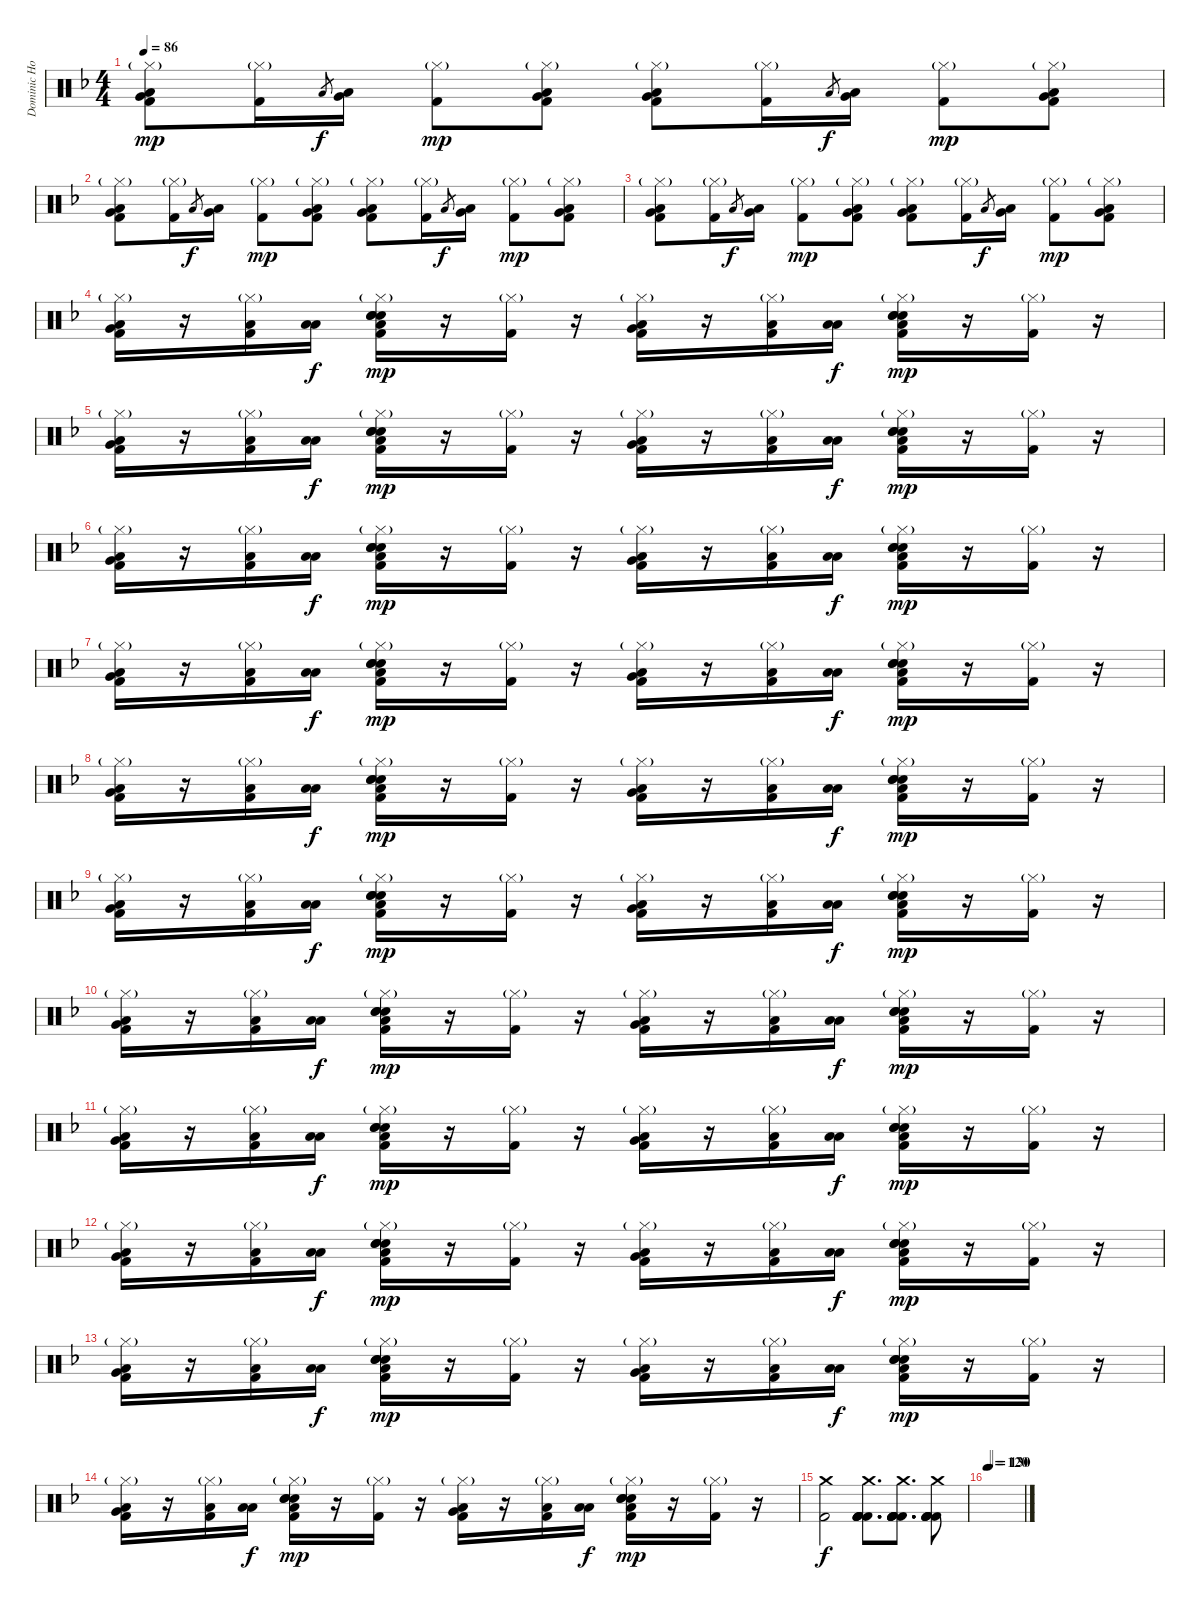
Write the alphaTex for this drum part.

\track ("Dominic Howard" "Dominic Ho") {instrument percussion}
\staff {score}
\articulation defaults
\ts (4 4)
\tempo 86
\clef neutral
\ks f
("Hi-Hat (closed)"{g} "Very Low Tom (hit)" "Low Floor Tom (hit)" "Kick (hit) 2").8{dy mp} ("Hi-Hat (closed)"{g} "Kick (hit) 2").16 "Low Floor Tom (hit)".8{gr dy f} ("Very Low Tom (hit)" "Low Floor Tom (hit)").16 ("Hi-Hat (closed)"{g} "Kick (hit) 2").8{dy mp} ("Hi-Hat (closed)"{g} "Very Low Tom (hit)" "Low Floor Tom (hit)" "Kick (hit) 2").8 ("Hi-Hat (closed)"{g} "Very Low Tom (hit)" "Low Floor Tom (hit)" "Kick (hit) 2").8 ("Hi-Hat (closed)"{g} "Kick (hit) 2").16 "Low Floor Tom (hit)".8{gr dy f} ("Very Low Tom (hit)" "Low Floor Tom (hit)").16 ("Hi-Hat (closed)"{g} "Kick (hit) 2").8{dy mp} ("Hi-Hat (closed)"{g} "Very Low Tom (hit)" "Low Floor Tom (hit)" "Kick (hit) 2").8 |
("Hi-Hat (closed)"{g} "Very Low Tom (hit)" "Low Floor Tom (hit)" "Kick (hit) 2").8 ("Hi-Hat (closed)"{g} "Kick (hit) 2").16 "Low Floor Tom (hit)".8{gr dy f} ("Very Low Tom (hit)" "Low Floor Tom (hit)").16 ("Hi-Hat (closed)"{g} "Kick (hit) 2").8{dy mp} ("Hi-Hat (closed)"{g} "Very Low Tom (hit)" "Low Floor Tom (hit)" "Kick (hit) 2").8 ("Hi-Hat (closed)"{g} "Very Low Tom (hit)" "Low Floor Tom (hit)" "Kick (hit) 2").8 ("Hi-Hat (closed)"{g} "Kick (hit) 2").16 "Low Floor Tom (hit)".8{gr dy f} ("Very Low Tom (hit)" "Low Floor Tom (hit)").16 ("Hi-Hat (closed)"{g} "Kick (hit) 2").8{dy mp} ("Hi-Hat (closed)"{g} "Very Low Tom (hit)" "Low Floor Tom (hit)" "Kick (hit) 2").8 |
("Hi-Hat (closed)"{g} "Very Low Tom (hit)" "Low Floor Tom (hit)" "Kick (hit) 2").8 ("Hi-Hat (closed)"{g} "Kick (hit) 2").16 "Low Floor Tom (hit)".8{gr dy f} ("Very Low Tom (hit)" "Low Floor Tom (hit)").16 ("Hi-Hat (closed)"{g} "Kick (hit) 2").8{dy mp} ("Hi-Hat (closed)"{g} "Very Low Tom (hit)" "Low Floor Tom (hit)" "Kick (hit) 2").8 ("Hi-Hat (closed)"{g} "Very Low Tom (hit)" "Low Floor Tom (hit)" "Kick (hit) 2").8 ("Hi-Hat (closed)"{g} "Kick (hit) 2").16 "Low Floor Tom (hit)".8{gr dy f} ("Very Low Tom (hit)" "Low Floor Tom (hit)").16 ("Hi-Hat (closed)"{g} "Kick (hit) 2").8{dy mp} ("Hi-Hat (closed)"{g} "Very Low Tom (hit)" "Low Floor Tom (hit)" "Kick (hit) 2").8 |
("Hi-Hat (closed)"{g} "Very Low Tom (hit)" "Low Floor Tom (hit)" "Kick (hit) 2").16 r.16 ("Hi-Hat (closed)"{g} "Low Floor Tom (hit)" "Kick (hit) 2").16 ("Low Floor Tom (hit)" "Low Tom (hit)").16{dy f} ("Electric Snare (hit)" "Electric Snare (hit)" "Electric Snare (hit)" "Low Floor Tom (hit)" "Hi-Hat (closed)"{g} "Kick (hit) 2").16{dy mp} r.16 ("Hi-Hat (closed)"{g} "Kick (hit) 2").16 r.16 ("Very Low Tom (hit)" "Low Floor Tom (hit)" "Hi-Hat (closed)"{g} "Kick (hit) 2").16 r.16 ("Low Floor Tom (hit)" "Hi-Hat (closed)"{g} "Kick (hit) 2").16 ("Low Floor Tom (hit)" "Low Tom (hit)").16{dy f} ("Electric Snare (hit)" "Electric Snare (hit)" "Electric Snare (hit)" "Low Floor Tom (hit)" "Hi-Hat (closed)"{g} "Kick (hit) 2").16{dy mp} r.16 ("Hi-Hat (closed)"{g} "Kick (hit) 2").16 r.16 |
("Hi-Hat (closed)"{g} "Very Low Tom (hit)" "Low Floor Tom (hit)" "Kick (hit) 2").16 r.16 ("Hi-Hat (closed)"{g} "Low Floor Tom (hit)" "Kick (hit) 2").16 ("Low Floor Tom (hit)" "Low Tom (hit)").16{dy f} ("Electric Snare (hit)" "Electric Snare (hit)" "Electric Snare (hit)" "Low Floor Tom (hit)" "Hi-Hat (closed)"{g} "Kick (hit) 2").16{dy mp} r.16 ("Hi-Hat (closed)"{g} "Kick (hit) 2").16 r.16 ("Very Low Tom (hit)" "Low Floor Tom (hit)" "Hi-Hat (closed)"{g} "Kick (hit) 2").16 r.16 ("Low Floor Tom (hit)" "Hi-Hat (closed)"{g} "Kick (hit) 2").16 ("Low Floor Tom (hit)" "Low Tom (hit)").16{dy f} ("Electric Snare (hit)" "Electric Snare (hit)" "Electric Snare (hit)" "Low Floor Tom (hit)" "Hi-Hat (closed)"{g} "Kick (hit) 2").16{dy mp} r.16 ("Hi-Hat (closed)"{g} "Kick (hit) 2").16 r.16 |
("Hi-Hat (closed)"{g} "Very Low Tom (hit)" "Low Floor Tom (hit)" "Kick (hit) 2").16 r.16 ("Hi-Hat (closed)"{g} "Low Floor Tom (hit)" "Kick (hit) 2").16 ("Low Floor Tom (hit)" "Low Tom (hit)").16{dy f} ("Electric Snare (hit)" "Electric Snare (hit)" "Electric Snare (hit)" "Low Floor Tom (hit)" "Hi-Hat (closed)"{g} "Kick (hit) 2").16{dy mp} r.16 ("Hi-Hat (closed)"{g} "Kick (hit) 2").16 r.16 ("Very Low Tom (hit)" "Low Floor Tom (hit)" "Hi-Hat (closed)"{g} "Kick (hit) 2").16 r.16 ("Low Floor Tom (hit)" "Hi-Hat (closed)"{g} "Kick (hit) 2").16 ("Low Floor Tom (hit)" "Low Tom (hit)").16{dy f} ("Electric Snare (hit)" "Electric Snare (hit)" "Electric Snare (hit)" "Low Floor Tom (hit)" "Hi-Hat (closed)"{g} "Kick (hit) 2").16{dy mp} r.16 ("Hi-Hat (closed)"{g} "Kick (hit) 2").16 r.16 |
("Hi-Hat (closed)"{g} "Very Low Tom (hit)" "Low Floor Tom (hit)" "Kick (hit) 2").16 r.16 ("Hi-Hat (closed)"{g} "Low Floor Tom (hit)" "Kick (hit) 2").16 ("Low Floor Tom (hit)" "Low Tom (hit)").16{dy f} ("Electric Snare (hit)" "Electric Snare (hit)" "Electric Snare (hit)" "Low Floor Tom (hit)" "Hi-Hat (closed)"{g} "Kick (hit) 2").16{dy mp} r.16 ("Hi-Hat (closed)"{g} "Kick (hit) 2").16 r.16 ("Very Low Tom (hit)" "Low Floor Tom (hit)" "Hi-Hat (closed)"{g} "Kick (hit) 2").16 r.16 ("Low Floor Tom (hit)" "Hi-Hat (closed)"{g} "Kick (hit) 2").16 ("Low Floor Tom (hit)" "Low Tom (hit)").16{dy f} ("Electric Snare (hit)" "Electric Snare (hit)" "Electric Snare (hit)" "Low Floor Tom (hit)" "Hi-Hat (closed)"{g} "Kick (hit) 2").16{dy mp} r.16 ("Hi-Hat (closed)"{g} "Kick (hit) 2").16 r.16 |
("Hi-Hat (closed)"{g} "Very Low Tom (hit)" "Low Floor Tom (hit)" "Kick (hit) 2").16 r.16 ("Hi-Hat (closed)"{g} "Low Floor Tom (hit)" "Kick (hit) 2").16 ("Low Floor Tom (hit)" "Low Tom (hit)").16{dy f} ("Electric Snare (hit)" "Electric Snare (hit)" "Electric Snare (hit)" "Low Floor Tom (hit)" "Hi-Hat (closed)"{g} "Kick (hit) 2").16{dy mp} r.16 ("Hi-Hat (closed)"{g} "Kick (hit) 2").16 r.16 ("Very Low Tom (hit)" "Low Floor Tom (hit)" "Hi-Hat (closed)"{g} "Kick (hit) 2").16 r.16 ("Low Floor Tom (hit)" "Hi-Hat (closed)"{g} "Kick (hit) 2").16 ("Low Floor Tom (hit)" "Low Tom (hit)").16{dy f} ("Electric Snare (hit)" "Electric Snare (hit)" "Electric Snare (hit)" "Low Floor Tom (hit)" "Hi-Hat (closed)"{g} "Kick (hit) 2").16{dy mp} r.16 ("Hi-Hat (closed)"{g} "Kick (hit) 2").16 r.16 |
("Hi-Hat (closed)"{g} "Very Low Tom (hit)" "Low Floor Tom (hit)" "Kick (hit) 2").16 r.16 ("Hi-Hat (closed)"{g} "Low Floor Tom (hit)" "Kick (hit) 2").16 ("Low Floor Tom (hit)" "Low Tom (hit)").16{dy f} ("Electric Snare (hit)" "Electric Snare (hit)" "Electric Snare (hit)" "Low Floor Tom (hit)" "Hi-Hat (closed)"{g} "Kick (hit) 2").16{dy mp} r.16 ("Hi-Hat (closed)"{g} "Kick (hit) 2").16 r.16 ("Very Low Tom (hit)" "Low Floor Tom (hit)" "Hi-Hat (closed)"{g} "Kick (hit) 2").16 r.16 ("Low Floor Tom (hit)" "Hi-Hat (closed)"{g} "Kick (hit) 2").16 ("Low Floor Tom (hit)" "Low Tom (hit)").16{dy f} ("Electric Snare (hit)" "Electric Snare (hit)" "Electric Snare (hit)" "Low Floor Tom (hit)" "Hi-Hat (closed)"{g} "Kick (hit) 2").16{dy mp} r.16 ("Hi-Hat (closed)"{g} "Kick (hit) 2").16 r.16 |
("Hi-Hat (closed)"{g} "Very Low Tom (hit)" "Low Floor Tom (hit)" "Kick (hit) 2").16 r.16 ("Hi-Hat (closed)"{g} "Low Floor Tom (hit)" "Kick (hit) 2").16 ("Low Floor Tom (hit)" "Low Tom (hit)").16{dy f} ("Electric Snare (hit)" "Electric Snare (hit)" "Electric Snare (hit)" "Low Floor Tom (hit)" "Hi-Hat (closed)"{g} "Kick (hit) 2").16{dy mp} r.16 ("Hi-Hat (closed)"{g} "Kick (hit) 2").16 r.16 ("Very Low Tom (hit)" "Low Floor Tom (hit)" "Hi-Hat (closed)"{g} "Kick (hit) 2").16 r.16 ("Low Floor Tom (hit)" "Hi-Hat (closed)"{g} "Kick (hit) 2").16 ("Low Floor Tom (hit)" "Low Tom (hit)").16{dy f} ("Electric Snare (hit)" "Electric Snare (hit)" "Electric Snare (hit)" "Low Floor Tom (hit)" "Hi-Hat (closed)"{g} "Kick (hit) 2").16{dy mp} r.16 ("Hi-Hat (closed)"{g} "Kick (hit) 2").16 r.16 |
("Hi-Hat (closed)"{g} "Very Low Tom (hit)" "Low Floor Tom (hit)" "Kick (hit) 2").16 r.16 ("Hi-Hat (closed)"{g} "Low Floor Tom (hit)" "Kick (hit) 2").16 ("Low Floor Tom (hit)" "Low Tom (hit)").16{dy f} ("Electric Snare (hit)" "Electric Snare (hit)" "Electric Snare (hit)" "Low Floor Tom (hit)" "Hi-Hat (closed)"{g} "Kick (hit) 2").16{dy mp} r.16 ("Hi-Hat (closed)"{g} "Kick (hit) 2").16 r.16 ("Very Low Tom (hit)" "Low Floor Tom (hit)" "Hi-Hat (closed)"{g} "Kick (hit) 2").16 r.16 ("Low Floor Tom (hit)" "Hi-Hat (closed)"{g} "Kick (hit) 2").16 ("Low Floor Tom (hit)" "Low Tom (hit)").16{dy f} ("Electric Snare (hit)" "Electric Snare (hit)" "Electric Snare (hit)" "Low Floor Tom (hit)" "Hi-Hat (closed)"{g} "Kick (hit) 2").16{dy mp} r.16 ("Hi-Hat (closed)"{g} "Kick (hit) 2").16 r.16 |
("Hi-Hat (closed)"{g} "Very Low Tom (hit)" "Low Floor Tom (hit)" "Kick (hit) 2").16 r.16 ("Hi-Hat (closed)"{g} "Low Floor Tom (hit)" "Kick (hit) 2").16 ("Low Floor Tom (hit)" "Low Tom (hit)").16{dy f} ("Electric Snare (hit)" "Electric Snare (hit)" "Electric Snare (hit)" "Low Floor Tom (hit)" "Hi-Hat (closed)"{g} "Kick (hit) 2").16{dy mp} r.16 ("Hi-Hat (closed)"{g} "Kick (hit) 2").16 r.16 ("Very Low Tom (hit)" "Low Floor Tom (hit)" "Hi-Hat (closed)"{g} "Kick (hit) 2").16 r.16 ("Low Floor Tom (hit)" "Hi-Hat (closed)"{g} "Kick (hit) 2").16 ("Low Floor Tom (hit)" "Low Tom (hit)").16{dy f} ("Electric Snare (hit)" "Electric Snare (hit)" "Electric Snare (hit)" "Low Floor Tom (hit)" "Hi-Hat (closed)"{g} "Kick (hit) 2").16{dy mp} r.16 ("Hi-Hat (closed)"{g} "Kick (hit) 2").16 r.16 |
("Hi-Hat (closed)"{g} "Very Low Tom (hit)" "Low Floor Tom (hit)" "Kick (hit) 2").16 r.16 ("Hi-Hat (closed)"{g} "Low Floor Tom (hit)" "Kick (hit) 2").16 ("Low Floor Tom (hit)" "Low Tom (hit)").16{dy f} ("Electric Snare (hit)" "Electric Snare (hit)" "Electric Snare (hit)" "Low Floor Tom (hit)" "Hi-Hat (closed)"{g} "Kick (hit) 2").16{dy mp} r.16 ("Hi-Hat (closed)"{g} "Kick (hit) 2").16 r.16 ("Very Low Tom (hit)" "Low Floor Tom (hit)" "Hi-Hat (closed)"{g} "Kick (hit) 2").16 r.16 ("Low Floor Tom (hit)" "Hi-Hat (closed)"{g} "Kick (hit) 2").16 ("Low Floor Tom (hit)" "Low Tom (hit)").16{dy f} ("Electric Snare (hit)" "Electric Snare (hit)" "Electric Snare (hit)" "Low Floor Tom (hit)" "Hi-Hat (closed)"{g} "Kick (hit) 2").16{dy mp} r.16 ("Hi-Hat (closed)"{g} "Kick (hit) 2").16 r.16 |
("Hi-Hat (closed)"{g} "Very Low Tom (hit)" "Low Floor Tom (hit)" "Kick (hit) 2").16 r.16 ("Hi-Hat (closed)"{g} "Low Floor Tom (hit)" "Kick (hit) 2").16 ("Low Floor Tom (hit)" "Low Tom (hit)").16{dy f} ("Electric Snare (hit)" "Electric Snare (hit)" "Electric Snare (hit)" "Low Floor Tom (hit)" "Hi-Hat (closed)"{g} "Kick (hit) 2").16{dy mp} r.16 ("Hi-Hat (closed)"{g} "Kick (hit) 2").16 r.16 ("Very Low Tom (hit)" "Low Floor Tom (hit)" "Hi-Hat (closed)"{g} "Kick (hit) 2").16 r.16 ("Low Floor Tom (hit)" "Hi-Hat (closed)"{g} "Kick (hit) 2").16 ("Low Floor Tom (hit)" "Low Tom (hit)").16{dy f} ("Electric Snare (hit)" "Electric Snare (hit)" "Electric Snare (hit)" "Low Floor Tom (hit)" "Hi-Hat (closed)"{g} "Kick (hit) 2").16{dy mp} r.16 ("Hi-Hat (closed)"{g} "Kick (hit) 2").16 r.16 |
("Crash medium (hit)" "Kick (hit) 2").2{dy f} ("Kick (hit) 2" "Kick (hit) 2" "Crash medium (hit)" "Kick (hit) 2" "Kick (hit) 2" "Kick (hit) 2").8{d} ("Kick (hit) 2" "Kick (hit) 2" "Crash medium (hit)" "Kick (hit) 2" "Kick (hit) 2" "Kick (hit) 2").8{d} ("Kick (hit) 2" "Kick (hit) 2" "Crash medium (hit)" "Kick (hit) 2" "Kick (hit) 2" "Kick (hit) 2").8 |
\tempo 120
\tempo (130 0.0625)
